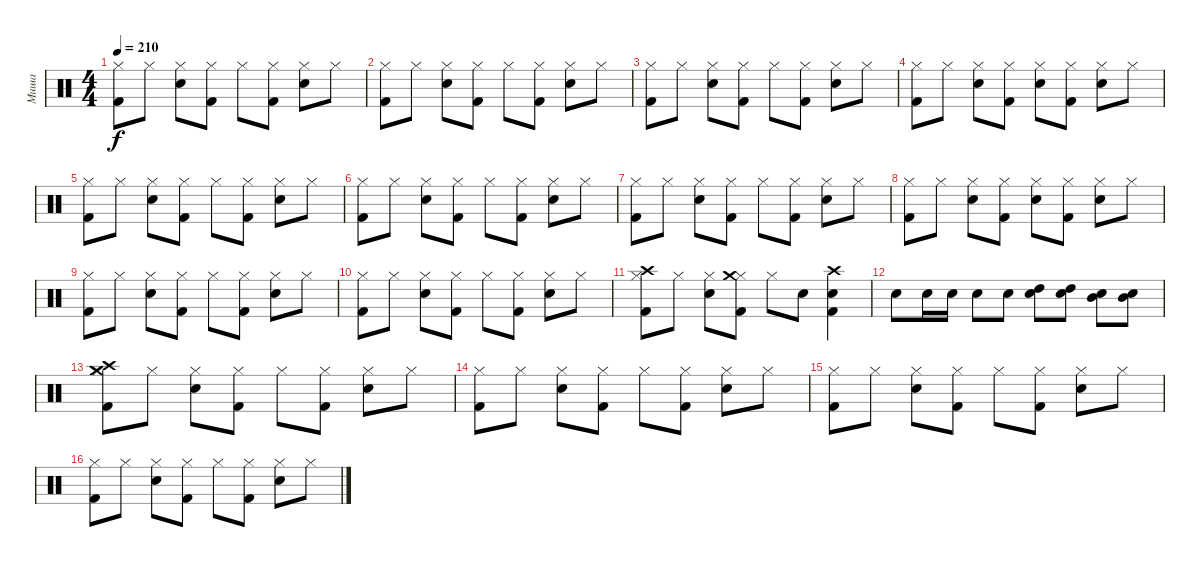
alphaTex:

\track ("Миша" "Миша") {instrument percussion}
\staff {score}
\articulation defaults
\ts (4 4)
\tempo 210
\clef neutral
\ks c
("Hi-Hat (closed)" "Kick (hit) 2").8{dy f} "Hi-Hat (closed)".8 ("Hi-Hat (closed)" "Snare (hit) 2").8 ("Hi-Hat (closed)" "Kick (hit) 2").8 "Hi-Hat (closed)".8 ("Hi-Hat (closed)" "Kick (hit) 2").8 ("Hi-Hat (closed)" "Snare (hit) 2").8 "Hi-Hat (closed)".8 |
("Hi-Hat (closed)" "Kick (hit) 2").8 "Hi-Hat (closed)".8 ("Hi-Hat (closed)" "Snare (hit) 2").8 ("Hi-Hat (closed)" "Kick (hit) 2").8 "Hi-Hat (closed)".8 ("Hi-Hat (closed)" "Kick (hit) 2").8 ("Hi-Hat (closed)" "Snare (hit) 2").8 "Hi-Hat (closed)".8 |
("Hi-Hat (closed)" "Kick (hit) 2").8 "Hi-Hat (closed)".8 ("Hi-Hat (closed)" "Snare (hit) 2").8 ("Hi-Hat (closed)" "Kick (hit) 2").8 "Hi-Hat (closed)".8 ("Hi-Hat (closed)" "Kick (hit) 2").8 ("Hi-Hat (closed)" "Snare (hit) 2").8 "Hi-Hat (closed)".8 |
("Hi-Hat (closed)" "Kick (hit) 2").8 "Hi-Hat (closed)".8 ("Hi-Hat (closed)" "Snare (hit) 2").8 ("Hi-Hat (closed)" "Kick (hit) 2").8 ("Hi-Hat (closed)" "Snare (hit) 2").8 ("Hi-Hat (closed)" "Kick (hit) 2").8 ("Hi-Hat (closed)" "Snare (hit) 2").8 "Hi-Hat (closed)".8 |
("Hi-Hat (closed)" "Kick (hit) 2").8 "Hi-Hat (closed)".8 ("Hi-Hat (closed)" "Snare (hit) 2").8 ("Hi-Hat (closed)" "Kick (hit) 2").8 "Hi-Hat (closed)".8 ("Hi-Hat (closed)" "Kick (hit) 2").8 ("Hi-Hat (closed)" "Snare (hit) 2").8 "Hi-Hat (closed)".8 |
("Hi-Hat (closed)" "Kick (hit) 2").8 "Hi-Hat (closed)".8 ("Hi-Hat (closed)" "Snare (hit) 2").8 ("Hi-Hat (closed)" "Kick (hit) 2").8 "Hi-Hat (closed)".8 ("Hi-Hat (closed)" "Kick (hit) 2").8 ("Hi-Hat (closed)" "Snare (hit) 2").8 "Hi-Hat (closed)".8 |
("Hi-Hat (closed)" "Kick (hit) 2").8 "Hi-Hat (closed)".8 ("Hi-Hat (closed)" "Snare (hit) 2").8 ("Hi-Hat (closed)" "Kick (hit) 2").8 "Hi-Hat (closed)".8 ("Hi-Hat (closed)" "Kick (hit) 2").8 ("Hi-Hat (closed)" "Snare (hit) 2").8 "Hi-Hat (closed)".8 |
("Hi-Hat (closed)" "Kick (hit) 2").8 "Hi-Hat (closed)".8 ("Hi-Hat (closed)" "Snare (hit) 2").8 ("Hi-Hat (closed)" "Kick (hit) 2").8 ("Hi-Hat (closed)" "Snare (hit) 2").8 ("Hi-Hat (closed)" "Kick (hit) 2").8 ("Hi-Hat (closed)" "Snare (hit) 2").8 "Hi-Hat (closed)".8 |
("Hi-Hat (closed)" "Kick (hit) 2").8 "Hi-Hat (closed)".8 ("Hi-Hat (closed)" "Snare (hit) 2").8 ("Hi-Hat (closed)" "Kick (hit) 2").8 "Hi-Hat (closed)".8 ("Hi-Hat (closed)" "Kick (hit) 2").8 ("Hi-Hat (closed)" "Snare (hit) 2").8 "Hi-Hat (closed)".8 |
("Hi-Hat (closed)" "Kick (hit) 2").8 "Hi-Hat (closed)".8 ("Hi-Hat (closed)" "Snare (hit) 2").8 ("Hi-Hat (closed)" "Kick (hit) 2").8 "Hi-Hat (closed)".8 ("Hi-Hat (closed)" "Kick (hit) 2").8 ("Hi-Hat (closed)" "Snare (hit) 2").8 "Hi-Hat (closed)".8 |
("Hi-Hat (closed)" "Kick (hit) 2" "Crash high (hit)").8 "Hi-Hat (closed)".8 ("Hi-Hat (closed)" "Snare (hit) 2").8 ("Hi-Hat (closed)" "Kick (hit) 2" "Crash medium (hit)").8 "Hi-Hat (closed)".8 "Snare (hit) 2".8 ("Kick (hit) 2" "Snare (hit) 2" "Crash high (hit)").4 |
"Snare (hit) 2".8 "Snare (hit) 2".16 "Snare (hit) 2".16 "Snare (hit) 2".8 "Snare (hit) 2".8 ("Snare (hit) 2" "High Tom (hit)").8 ("Snare (hit) 2" "High Tom (hit)").8 ("Snare (hit) 2" "Mid Tom (hit)").8 ("Snare (hit) 2" "Mid Tom (hit)").8 |
("Hi-Hat (closed)" "Kick (hit) 2" "Crash medium (hit)" "Crash high (hit)").8 "Hi-Hat (closed)".8 ("Hi-Hat (closed)" "Snare (hit) 2").8 ("Hi-Hat (closed)" "Kick (hit) 2").8 "Hi-Hat (closed)".8 ("Hi-Hat (closed)" "Kick (hit) 2").8 ("Hi-Hat (closed)" "Snare (hit) 2").8 "Hi-Hat (closed)".8 |
("Hi-Hat (closed)" "Kick (hit) 2").8 "Hi-Hat (closed)".8 ("Hi-Hat (closed)" "Snare (hit) 2").8 ("Hi-Hat (closed)" "Kick (hit) 2").8 "Hi-Hat (closed)".8 ("Hi-Hat (closed)" "Kick (hit) 2").8 ("Hi-Hat (closed)" "Snare (hit) 2").8 "Hi-Hat (closed)".8 |
("Hi-Hat (closed)" "Kick (hit) 2").8 "Hi-Hat (closed)".8 ("Hi-Hat (closed)" "Snare (hit) 2").8 ("Hi-Hat (closed)" "Kick (hit) 2").8 "Hi-Hat (closed)".8 ("Hi-Hat (closed)" "Kick (hit) 2").8 ("Hi-Hat (closed)" "Snare (hit) 2").8 "Hi-Hat (closed)".8 |
("Hi-Hat (closed)" "Kick (hit) 2").8 "Hi-Hat (closed)".8 ("Hi-Hat (closed)" "Snare (hit) 2").8 ("Hi-Hat (closed)" "Kick (hit) 2").8 "Hi-Hat (closed)".8 ("Hi-Hat (closed)" "Kick (hit) 2").8 ("Hi-Hat (closed)" "Snare (hit) 2").8 "Hi-Hat (closed)".8
